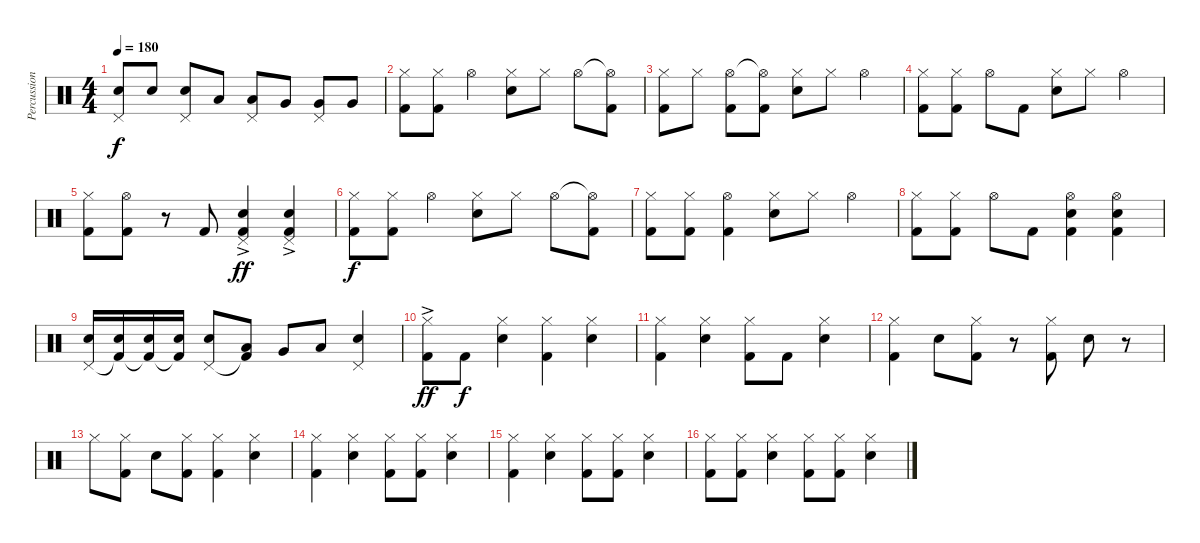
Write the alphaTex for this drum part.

\track ("Percussion" "Percussion") {instrument percussion}
\staff {score}
\articulation defaults
\ts (4 4)
\tempo 180
\clef neutral
\ks c
("Pedal Hi-Hat (hit)" "Snare (hit) 2").8{dy f} "Snare (hit) 2".8 ("Pedal Hi-Hat (hit)" "Snare (hit) 2").8 "Low Tom (hit)".8 ("Pedal Hi-Hat (hit)" "Low Tom (hit)").8 "Very Low Tom (hit)".8 ("Pedal Hi-Hat (hit)" "Very Low Tom (hit)").8 "Very Low Tom (hit)".8 |
("Hi-Hat (closed)" "Kick (hit) 2").8 ("Hi-Hat (closed)" "Kick (hit) 2").8 "Hi-Hat (open)".4 ("Hi-Hat (closed)" "Snare (hit) 2").8 "Hi-Hat (closed)".8 "Hi-Hat (open)".8 ("Hi-Hat (open)"{t} "Kick (hit) 2").8 |
("Hi-Hat (closed)" "Kick (hit) 2").8 "Hi-Hat (closed)".8 ("Hi-Hat (open)" "Kick (hit) 2").8 ("Hi-Hat (open)"{t} "Kick (hit) 2").8 ("Hi-Hat (closed)" "Snare (hit) 2").8 "Hi-Hat (closed)".8 "Hi-Hat (open)".4 |
("Hi-Hat (closed)" "Kick (hit) 2").8 ("Hi-Hat (closed)" "Kick (hit) 2").8 "Hi-Hat (open)".8 "Kick (hit) 2".8 ("Hi-Hat (closed)" "Snare (hit) 2").8 "Hi-Hat (closed)".8 "Hi-Hat (open)".4 |
("Hi-Hat (closed)" "Kick (hit) 2").8 ("Hi-Hat (open)" "Kick (hit) 2").8 r.8 "Kick (hit) 2".8 ("Pedal Hi-Hat (hit)"{ac} "Snare (hit) 2" "Kick (hit) 2").4{dy ff} ("Pedal Hi-Hat (hit)"{ac} "Snare (hit) 2" "Kick (hit) 2").4 |
("Hi-Hat (closed)" "Kick (hit) 2").8{dy f} ("Hi-Hat (closed)" "Kick (hit) 2").8 "Hi-Hat (open)".4 ("Hi-Hat (closed)" "Snare (hit) 2").8 "Hi-Hat (closed)".8 "Hi-Hat (open)".8 ("Hi-Hat (open)"{t} "Kick (hit) 2").8 |
("Hi-Hat (closed)" "Kick (hit) 2").8 ("Hi-Hat (closed)" "Kick (hit) 2").8 ("Hi-Hat (open)" "Kick (hit) 2").4 ("Hi-Hat (closed)" "Snare (hit) 2").8 "Hi-Hat (closed)".8 "Hi-Hat (open)".4 |
("Hi-Hat (closed)" "Kick (hit) 2").8 ("Hi-Hat (closed)" "Kick (hit) 2").8 "Hi-Hat (open)".8 "Kick (hit) 2".8 ("Hi-Hat (open)" "Snare (hit) 2" "Kick (hit) 2").4 ("Hi-Hat (open)" "Snare (hit) 2" "Kick (hit) 2").4 |
("Snare (hit) 2" "Pedal Hi-Hat (hit)").16 ("Snare (hit) 2" "Kick (hit) 2"{t}).16 ("Snare (hit) 2" "Kick (hit) 2"{t}).16 ("Snare (hit) 2" "Kick (hit) 2"{t}).16 ("Snare (hit) 2" "Pedal Hi-Hat (hit)").8 ("Low Tom (hit)" "Kick (hit) 2"{t}).8 "Very Low Tom (hit)".8 "Low Floor Tom (hit)".8 ("Snare (hit) 2" "Pedal Hi-Hat (hit)").4 |
("Hi-Hat (closed)"{ac} "Kick (hit) 2").8{dy ff} "Kick (hit) 2".8{dy f} ("Hi-Hat (closed)" "Snare (hit) 2").4 ("Hi-Hat (closed)" "Kick (hit) 2").4 ("Hi-Hat (closed)" "Snare (hit) 2").4 |
("Hi-Hat (closed)" "Kick (hit) 2").4 ("Hi-Hat (closed)" "Snare (hit) 2").4 ("Hi-Hat (closed)" "Kick (hit) 2").8 "Kick (hit) 2".8 ("Hi-Hat (closed)" "Snare (hit) 2").4 |
("Hi-Hat (closed)" "Kick (hit) 2").4 "Snare (hit) 2".8 ("Hi-Hat (closed)" "Kick (hit) 2").8 r.8 ("Hi-Hat (closed)" "Kick (hit) 2").8 "Snare (hit) 2".8 r.8 |
"Hi-Hat (closed)".8 ("Hi-Hat (closed)" "Kick (hit) 2").8 "Snare (hit) 2".8 ("Hi-Hat (closed)" "Kick (hit) 2").8 ("Hi-Hat (closed)" "Kick (hit) 2").4 ("Hi-Hat (closed)" "Snare (hit) 2").4 |
("Hi-Hat (closed)" "Kick (hit) 2").4 ("Hi-Hat (closed)" "Snare (hit) 2").4 ("Hi-Hat (closed)" "Kick (hit) 2").8 ("Hi-Hat (closed)" "Kick (hit) 2").8 ("Hi-Hat (closed)" "Snare (hit) 2").4 |
("Hi-Hat (closed)" "Kick (hit) 2").4 ("Hi-Hat (closed)" "Snare (hit) 2").4 ("Hi-Hat (closed)" "Kick (hit) 2").8 ("Hi-Hat (closed)" "Kick (hit) 2").8 ("Hi-Hat (closed)" "Snare (hit) 2").4 |
("Hi-Hat (closed)" "Kick (hit) 2").8 ("Hi-Hat (closed)" "Kick (hit) 2").8 ("Hi-Hat (closed)" "Snare (hit) 2").4 ("Hi-Hat (closed)" "Kick (hit) 2").8 ("Hi-Hat (closed)" "Kick (hit) 2").8 ("Hi-Hat (closed)" "Snare (hit) 2").4
